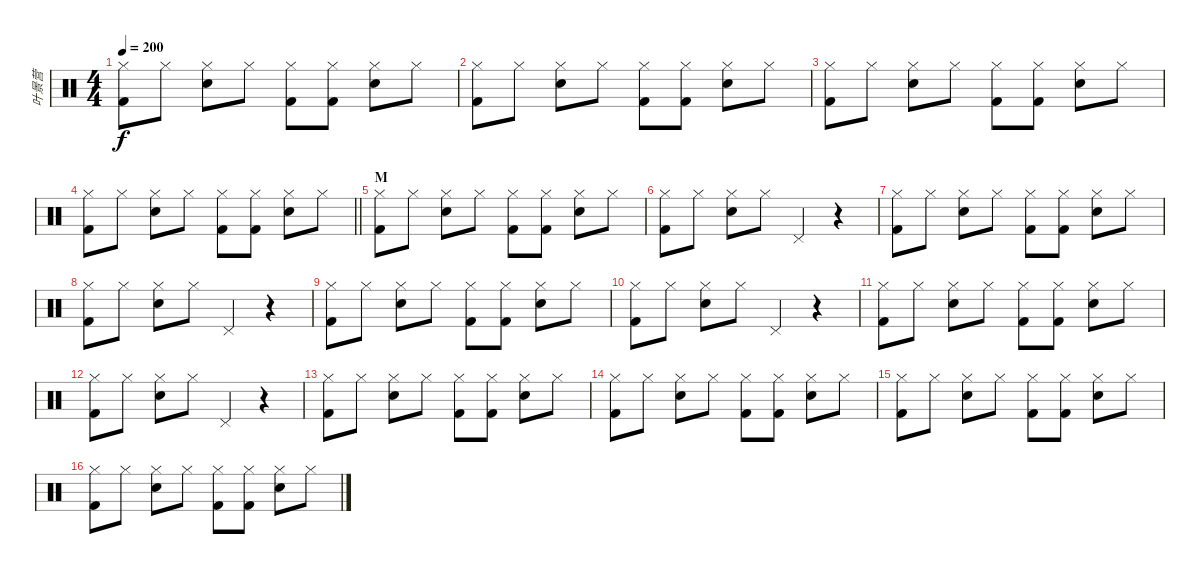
\track ("叶景营" "叶景营") {instrument percussion}
\staff {score}
\articulation defaults
\ts (4 4)
\tempo 200
\clef neutral
\ks c
("Hi-Hat (closed)" "Kick (hit) 2").8{dy f} "Hi-Hat (closed)".8 ("Hi-Hat (closed)" "Electric Snare (hit)").8 "Hi-Hat (closed)".8 ("Hi-Hat (closed)" "Kick (hit) 2").8 ("Hi-Hat (closed)" "Kick (hit) 2").8 ("Hi-Hat (closed)" "Electric Snare (hit)").8 "Hi-Hat (closed)".8 |
("Hi-Hat (closed)" "Kick (hit) 2").8 "Hi-Hat (closed)".8 ("Hi-Hat (closed)" "Electric Snare (hit)").8 "Hi-Hat (closed)".8 ("Hi-Hat (closed)" "Kick (hit) 2").8 ("Hi-Hat (closed)" "Kick (hit) 2").8 ("Hi-Hat (closed)" "Electric Snare (hit)").8 "Hi-Hat (closed)".8 |
("Hi-Hat (closed)" "Kick (hit) 2").8 "Hi-Hat (closed)".8 ("Hi-Hat (closed)" "Electric Snare (hit)").8 "Hi-Hat (closed)".8 ("Hi-Hat (closed)" "Kick (hit) 2").8 ("Hi-Hat (closed)" "Kick (hit) 2").8 ("Hi-Hat (closed)" "Electric Snare (hit)").8 "Hi-Hat (closed)".8 |
\barLineRight lightlight
("Hi-Hat (closed)" "Kick (hit) 2").8 "Hi-Hat (closed)".8 ("Hi-Hat (closed)" "Electric Snare (hit)").8 "Hi-Hat (closed)".8 ("Hi-Hat (closed)" "Kick (hit) 2").8 ("Hi-Hat (closed)" "Kick (hit) 2").8 ("Hi-Hat (closed)" "Electric Snare (hit)").8 "Hi-Hat (closed)".8 |
\section ("" "M")
("Hi-Hat (closed)" "Kick (hit) 2").8 "Hi-Hat (closed)".8 ("Hi-Hat (closed)" "Electric Snare (hit)").8 "Hi-Hat (closed)".8 ("Hi-Hat (closed)" "Kick (hit) 2").8 ("Hi-Hat (closed)" "Kick (hit) 2").8 ("Hi-Hat (closed)" "Electric Snare (hit)").8 "Hi-Hat (closed)".8 |
("Hi-Hat (closed)" "Kick (hit) 2").8 "Hi-Hat (closed)".8 ("Hi-Hat (closed)" "Electric Snare (hit)").8 "Hi-Hat (closed)".8 "Pedal Hi-Hat (hit)".4 r.4 |
("Hi-Hat (closed)" "Kick (hit) 2").8 "Hi-Hat (closed)".8 ("Hi-Hat (closed)" "Electric Snare (hit)").8 "Hi-Hat (closed)".8 ("Hi-Hat (closed)" "Kick (hit) 2").8 ("Hi-Hat (closed)" "Kick (hit) 2").8 ("Hi-Hat (closed)" "Electric Snare (hit)").8 "Hi-Hat (closed)".8 |
("Hi-Hat (closed)" "Kick (hit) 2").8 "Hi-Hat (closed)".8 ("Hi-Hat (closed)" "Electric Snare (hit)").8 "Hi-Hat (closed)".8 "Pedal Hi-Hat (hit)".4 r.4 |
("Hi-Hat (closed)" "Kick (hit) 2").8 "Hi-Hat (closed)".8 ("Hi-Hat (closed)" "Electric Snare (hit)").8 "Hi-Hat (closed)".8 ("Hi-Hat (closed)" "Kick (hit) 2").8 ("Hi-Hat (closed)" "Kick (hit) 2").8 ("Hi-Hat (closed)" "Electric Snare (hit)").8 "Hi-Hat (closed)".8 |
("Hi-Hat (closed)" "Kick (hit) 2").8 "Hi-Hat (closed)".8 ("Hi-Hat (closed)" "Electric Snare (hit)").8 "Hi-Hat (closed)".8 "Pedal Hi-Hat (hit)".4 r.4 |
("Hi-Hat (closed)" "Kick (hit) 2").8 "Hi-Hat (closed)".8 ("Hi-Hat (closed)" "Electric Snare (hit)").8 "Hi-Hat (closed)".8 ("Hi-Hat (closed)" "Kick (hit) 2").8 ("Hi-Hat (closed)" "Kick (hit) 2").8 ("Hi-Hat (closed)" "Electric Snare (hit)").8 "Hi-Hat (closed)".8 |
("Hi-Hat (closed)" "Kick (hit) 2").8 "Hi-Hat (closed)".8 ("Hi-Hat (closed)" "Electric Snare (hit)").8 "Hi-Hat (closed)".8 "Pedal Hi-Hat (hit)".4 r.4 |
("Hi-Hat (closed)" "Kick (hit) 2").8 "Hi-Hat (closed)".8 ("Hi-Hat (closed)" "Electric Snare (hit)").8 "Hi-Hat (closed)".8 ("Hi-Hat (closed)" "Kick (hit) 2").8 ("Hi-Hat (closed)" "Kick (hit) 2").8 ("Hi-Hat (closed)" "Electric Snare (hit)").8 "Hi-Hat (closed)".8 |
("Hi-Hat (closed)" "Kick (hit) 2").8 "Hi-Hat (closed)".8 ("Hi-Hat (closed)" "Electric Snare (hit)").8 "Hi-Hat (closed)".8 ("Hi-Hat (closed)" "Kick (hit) 2").8 ("Hi-Hat (closed)" "Kick (hit) 2").8 ("Hi-Hat (closed)" "Electric Snare (hit)").8 "Hi-Hat (closed)".8 |
("Hi-Hat (closed)" "Kick (hit) 2").8 "Hi-Hat (closed)".8 ("Hi-Hat (closed)" "Electric Snare (hit)").8 "Hi-Hat (closed)".8 ("Hi-Hat (closed)" "Kick (hit) 2").8 ("Hi-Hat (closed)" "Kick (hit) 2").8 ("Hi-Hat (closed)" "Electric Snare (hit)").8 "Hi-Hat (closed)".8 |
("Hi-Hat (closed)" "Kick (hit) 2").8 "Hi-Hat (closed)".8 ("Hi-Hat (closed)" "Electric Snare (hit)").8 "Hi-Hat (closed)".8 ("Hi-Hat (closed)" "Kick (hit) 2").8 ("Hi-Hat (closed)" "Kick (hit) 2").8 ("Hi-Hat (closed)" "Electric Snare (hit)").8 "Hi-Hat (closed)".8
